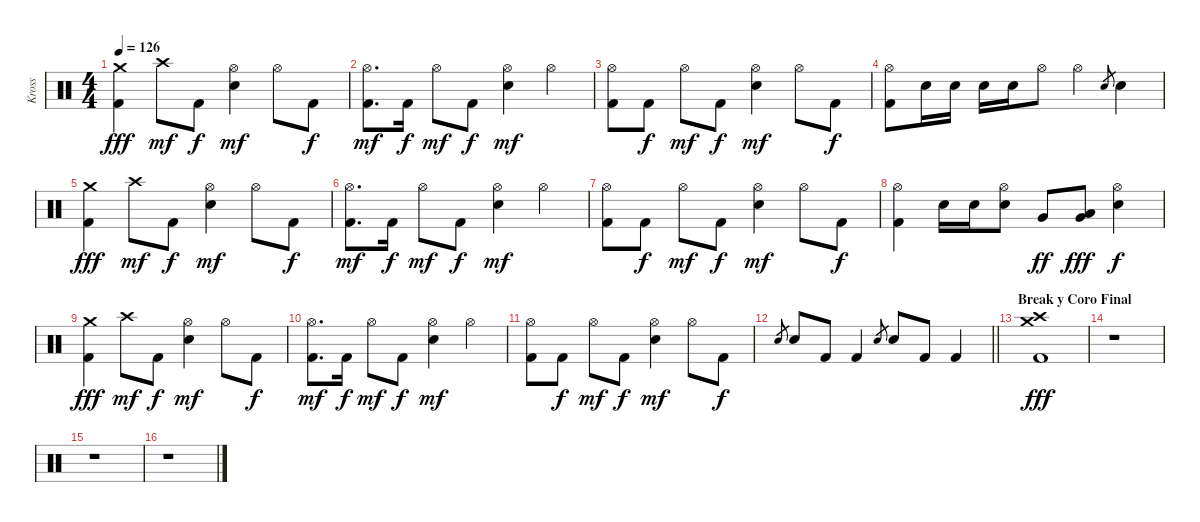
\track ("Kross" "Kross") {instrument percussion}
\staff {score}
\articulation defaults
\ts (4 4)
\tempo 126
\clef neutral
\ks c
("Crash medium (hit)" "Kick (hit) 2").4{dy fff} "Crash high (hit)".8{dy mf} "Kick (hit) 2".8{dy f} ("Hi-Hat (open)" "Electric Snare (hit)").4{dy mf} "Hi-Hat (open)".8 "Kick (hit) 2".8{dy f} |
("Hi-Hat (open)" "Kick (hit) 2").8{d dy mf} "Kick (hit) 2".16{dy f} "Hi-Hat (open)".8{dy mf} "Kick (hit) 2".8{dy f} ("Hi-Hat (open)" "Electric Snare (hit)").4{dy mf} "Hi-Hat (open)".4 |
("Hi-Hat (open)" "Kick (hit) 2").8 "Kick (hit) 2".8{dy f} "Hi-Hat (open)".8{dy mf} "Kick (hit) 2".8{dy f} ("Hi-Hat (open)" "Electric Snare (hit)").4{dy mf} "Hi-Hat (open)".8 "Kick (hit) 2".8{dy f} |
("Hi-Hat (open)" "Kick (hit) 2").8 "Electric Snare (hit)".16 "Electric Snare (hit)".16 "Electric Snare (hit)".16 "Electric Snare (hit)".16 "Hi-Hat (open)".8 "Hi-Hat (open)".4 "Electric Snare (hit)".8{gr} "Electric Snare (hit)".4 |
("Crash medium (hit)" "Kick (hit) 2").4{dy fff} "Crash high (hit)".8{dy mf} "Kick (hit) 2".8{dy f} ("Hi-Hat (open)" "Electric Snare (hit)").4{dy mf} "Hi-Hat (open)".8 "Kick (hit) 2".8{dy f} |
("Hi-Hat (open)" "Kick (hit) 2").8{d dy mf} "Kick (hit) 2".16{dy f} "Hi-Hat (open)".8{dy mf} "Kick (hit) 2".8{dy f} ("Hi-Hat (open)" "Electric Snare (hit)").4{dy mf} "Hi-Hat (open)".4 |
("Hi-Hat (open)" "Kick (hit) 2").8 "Kick (hit) 2".8{dy f} "Hi-Hat (open)".8{dy mf} "Kick (hit) 2".8{dy f} ("Hi-Hat (open)" "Electric Snare (hit)").4{dy mf} "Hi-Hat (open)".8 "Kick (hit) 2".8{dy f} |
("Hi-Hat (open)" "Kick (hit) 2").4 "Electric Snare (hit)".16 "Electric Snare (hit)".16 ("Hi-Hat (open)" "Electric Snare (hit)").8 "Very Low Tom (hit)".8{dy ff} ("Low Tom (hit)" "Very Low Tom (hit)").8{dy fff} ("Hi-Hat (open)" "Electric Snare (hit)").4{dy f} |
("Crash medium (hit)" "Kick (hit) 2").4{dy fff} "Crash high (hit)".8{dy mf} "Kick (hit) 2".8{dy f} ("Hi-Hat (open)" "Electric Snare (hit)").4{dy mf} "Hi-Hat (open)".8 "Kick (hit) 2".8{dy f} |
("Hi-Hat (open)" "Kick (hit) 2").8{d dy mf} "Kick (hit) 2".16{dy f} "Hi-Hat (open)".8{dy mf} "Kick (hit) 2".8{dy f} ("Hi-Hat (open)" "Electric Snare (hit)").4{dy mf} "Hi-Hat (open)".4 |
("Hi-Hat (open)" "Kick (hit) 2").8 "Kick (hit) 2".8{dy f} "Hi-Hat (open)".8{dy mf} "Kick (hit) 2".8{dy f} ("Hi-Hat (open)" "Electric Snare (hit)").4{dy mf} "Hi-Hat (open)".8 "Kick (hit) 2".8{dy f} |
\barLineRight lightlight "Electric Snare (hit)".8{gr} "Electric Snare (hit)".8 "Kick (hit) 2".8 "Kick (hit) 2".4 "Electric Snare (hit)".8{gr} "Electric Snare (hit)".8 "Kick (hit) 2".8 "Kick (hit) 2".4
|
\section ("" "Break y Coro Final")
("Crash high (hit)" "Crash medium (hit)" "Kick (hit) 2").1{dy fff} |
r.1 |
r.1 |
r.1
